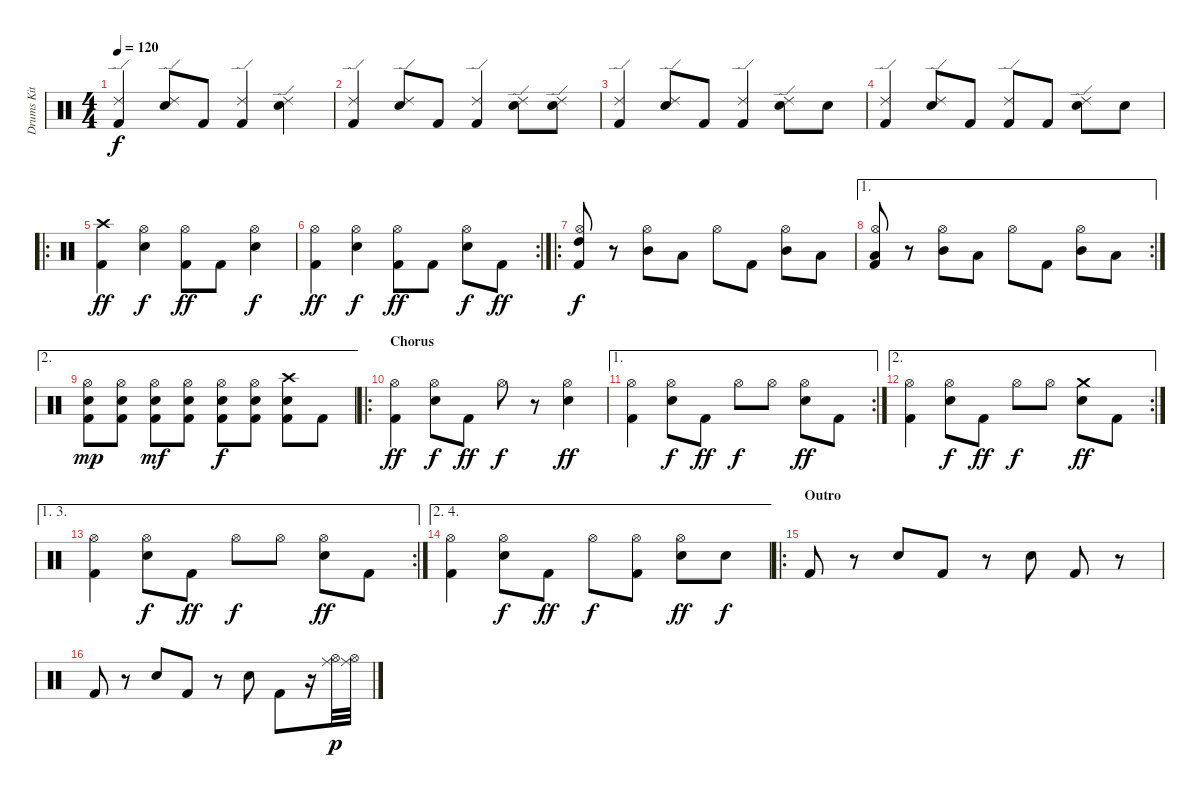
\track ("Drums Kit 42" "Drums Kit ") {instrument percussion}
\staff {score}
\articulation defaults
\ts (4 4)
\tempo 120
\clef neutral
\ks c
("Ride (edge) 2" "Kick (hit) 2").4{dy f} ("Ride (edge) 2" "Electric Snare (hit)").8 "Kick (hit) 2".8 ("Ride (edge) 2" "Kick (hit) 2").4 ("Ride (edge) 2" "Electric Snare (hit)").4 |
("Ride (edge) 2" "Kick (hit) 2").4 ("Ride (edge) 2" "Electric Snare (hit)").8 "Kick (hit) 2".8 ("Ride (edge) 2" "Kick (hit) 2").4 ("Ride (edge) 2" "Electric Snare (hit)").8 ("Ride (edge) 2" "Electric Snare (hit)").8 |
("Ride (edge) 2" "Kick (hit) 2").4 ("Ride (edge) 2" "Electric Snare (hit)").8 "Kick (hit) 2".8 ("Ride (edge) 2" "Kick (hit) 2").4 ("Ride (edge) 2" "Electric Snare (hit)").8 "Electric Snare (hit)".8 |
("Ride (edge) 2" "Kick (hit) 2").4 ("Ride (edge) 2" "Electric Snare (hit)").8 "Kick (hit) 2".8 ("Ride (edge) 2" "Kick (hit) 2").8 "Kick (hit) 2".8 ("Ride (edge) 2" "Electric Snare (hit)").8 "Electric Snare (hit)".8 |
\ro
("Crash high (hit)" "Kick (hit) 2").4{dy ff} ("Hi-Hat (open)" "Electric Snare (hit)").4{dy f} ("Hi-Hat (open)" "Kick (hit) 2").8{dy ff} "Kick (hit) 2".8 ("Hi-Hat (open)" "Electric Snare (hit)").4{dy f} |
\rc 2
("Hi-Hat (open)" "Kick (hit) 2").4{dy ff} ("Hi-Hat (open)" "Electric Snare (hit)").4{dy f} ("Hi-Hat (open)" "Kick (hit) 2").8{dy ff} "Kick (hit) 2".8 ("Hi-Hat (open)" "Electric Snare (hit)").8{dy f} "Kick (hit) 2".8{dy ff} |
\ro
("Hi-Hat (open)" "High Tom (hit)" "Kick (hit) 2").8{dy f} r.8 ("Hi-Hat (open)" "Mid Tom (hit)").8 "Low Tom (hit)".8 "Hi-Hat (open)".8 "Kick (hit) 2".8 ("Hi-Hat (open)" "Mid Tom (hit)").8 "Low Tom (hit)".8 |
\ae 1
\rc 2
("Hi-Hat (open)" "Low Floor Tom (hit)" "Kick (hit) 2").8 r.8 ("Hi-Hat (open)" "Mid Tom (hit)").8 "Low Tom (hit)".8 "Hi-Hat (open)".8 "Kick (hit) 2".8 ("Hi-Hat (open)" "Mid Tom (hit)").8 "Low Tom (hit)".8 |
\ae 2
("Hi-Hat (open)" "Electric Snare (hit)" "Kick (hit) 2").8{dy mp} ("Hi-Hat (open)" "Electric Snare (hit)" "Kick (hit) 2").8 ("Hi-Hat (open)" "Electric Snare (hit)" "Kick (hit) 2").8{dy mf} ("Hi-Hat (open)" "Electric Snare (hit)" "Kick (hit) 2").8 ("Hi-Hat (open)" "Electric Snare (hit)" "Kick (hit) 2").8{dy f} ("Hi-Hat (open)" "Electric Snare (hit)" "Kick (hit) 2").8 ("Crash high (hit)" "Electric Snare (hit)" "Kick (hit) 2").8 "Kick (hit) 2".8 |
\ro
\section ("" "Chorus")
("Hi-Hat (open)" "Kick (hit) 2").4{dy ff} ("Hi-Hat (open)" "Electric Snare (hit)").8{dy f} "Kick (hit) 2".8{dy ff} "Hi-Hat (open)".8{dy f} r.8 ("Hi-Hat (open)" "Electric Snare (hit)").4{dy ff} |
\ae 1
\rc 2
("Hi-Hat (open)" "Kick (hit) 2").4 ("Hi-Hat (open)" "Electric Snare (hit)").8{dy f} "Kick (hit) 2".8{dy ff} "Hi-Hat (open)".8{dy f} "Hi-Hat (open)".8 ("Hi-Hat (open)" "Electric Snare (hit)").8{dy ff} "Kick (hit) 2".8 |
\ae 2
\rc 2
("Hi-Hat (open)" "Kick (hit) 2").4 ("Hi-Hat (open)" "Electric Snare (hit)").8{dy f} "Kick (hit) 2".8{dy ff} "Hi-Hat (open)".8{dy f} "Hi-Hat (open)".8 ("Crash medium (hit)" "Electric Snare (hit)").8{dy ff} "Kick (hit) 2".8 |
\ae (1 3)
\rc 2
("Hi-Hat (open)" "Kick (hit) 2").4 ("Hi-Hat (open)" "Electric Snare (hit)").8{dy f} "Kick (hit) 2".8{dy ff} "Hi-Hat (open)".8{dy f} "Hi-Hat (open)".8 ("Hi-Hat (open)" "Electric Snare (hit)").8{dy ff} "Kick (hit) 2".8 |
\ae (2 4)
("Hi-Hat (open)" "Kick (hit) 2").4 ("Hi-Hat (open)" "Electric Snare (hit)").8{dy f} "Kick (hit) 2".8{dy ff} "Hi-Hat (open)".8{dy f} ("Hi-Hat (open)" "Kick (hit) 2").8 ("Hi-Hat (open)" "Electric Snare (hit)").8{dy ff} "Electric Snare (hit)".8{dy f} |
\ro
\section ("" "Outro")
"Kick (hit) 2".8 r.8 "Electric Snare (hit)".8 "Kick (hit) 2".8 r.8 "Electric Snare (hit)".8 "Kick (hit) 2".8 r.8 |
"Kick (hit) 2".8 r.8 "Electric Snare (hit)".8 "Kick (hit) 2".8 r.8 "Electric Snare (hit)".8 "Kick (hit) 2".8 r.16 ("Ride (middle)" "Hi-Hat (open)").32{dy p} ("Ride (middle)" "Hi-Hat (open)").32
